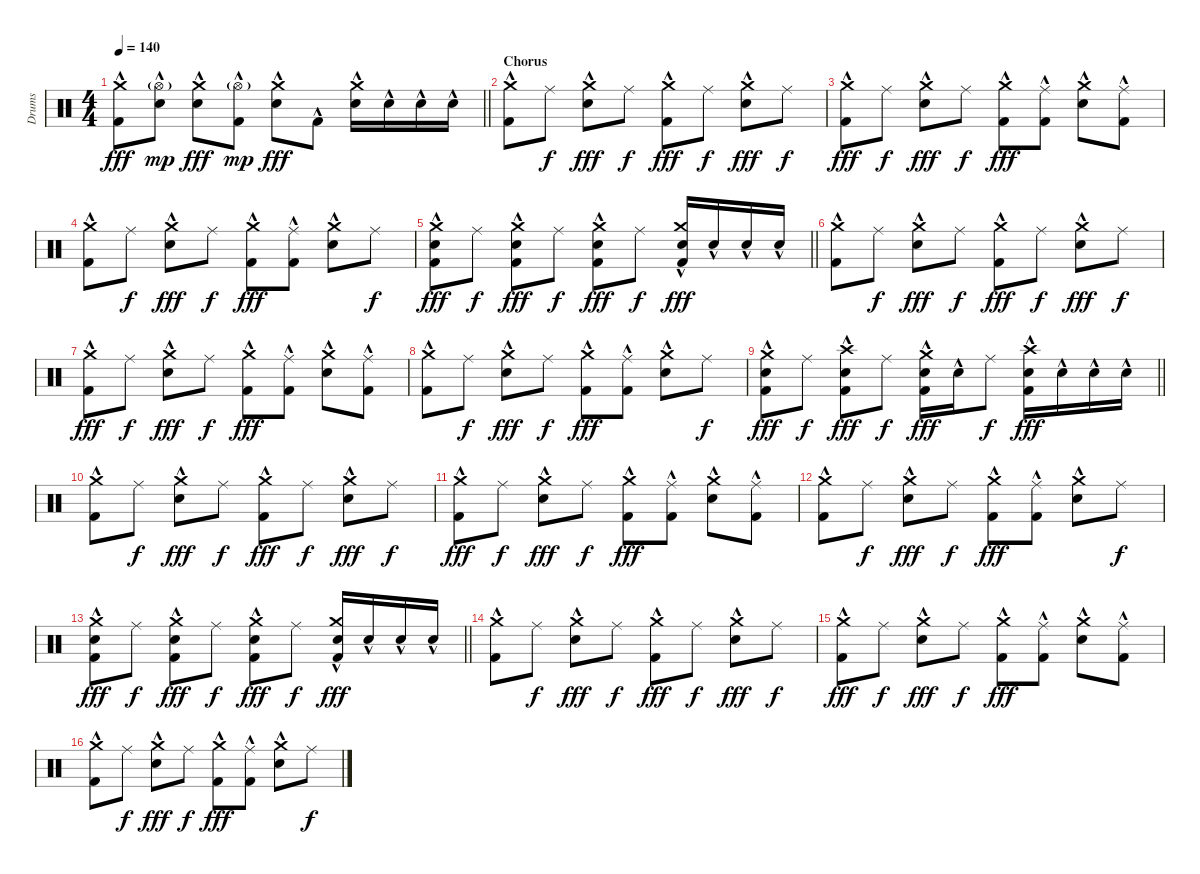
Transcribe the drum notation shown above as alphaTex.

\track ("Drums" "Drums") {instrument percussion}
\staff {score}
\articulation defaults
\ts (4 4)
\tempo 140
\clef neutral
\barLineRight lightlight
\ks c
("Kick (hit) 2"{hac} "Crash medium (hit)").8{dy fff} ("Snare (hit) 2"{hac} "Hi-Hat (open)"{g}).8{dy mp} ("Snare (hit) 2"{hac} "Crash medium (hit)").8{dy fff} ("Kick (hit) 2"{hac} "Hi-Hat (open)"{g}).8{dy mp} ("Snare (hit) 2"{hac} "Crash medium (hit)").8{dy fff} "Kick (hit) 2"{hac}.8 ("Snare (hit) 2"{hac} "Crash medium (hit)").16 "Snare (hit) 2"{hac}.16 "Snare (hit) 2"{hac}.16 "Snare (hit) 2"{hac}.16 |
\section ("" "Chorus")
("Kick (hit) 2"{hac} "Crash medium (hit)").8 "Ride (middle)".8{dy f} ("Snare (hit) 2"{hac} "Crash medium (hit)").8{dy fff} "Ride (middle)".8{dy f} ("Kick (hit) 2"{hac} "Crash medium (hit)").8{dy fff} "Ride (middle)".8{dy f} ("Snare (hit) 2"{hac} "Crash medium (hit)").8{dy fff} "Ride (middle)".8{dy f} |
("Kick (hit) 2"{hac} "Crash medium (hit)").8{dy fff} "Ride (middle)".8{dy f} ("Snare (hit) 2"{hac} "Crash medium (hit)").8{dy fff} "Ride (middle)".8{dy f} ("Kick (hit) 2"{hac} "Crash medium (hit)").8{dy fff} ("Kick (hit) 2"{hac} "Ride (middle)").8 ("Snare (hit) 2"{hac} "Crash medium (hit)").8 ("Kick (hit) 2"{hac} "Ride (middle)").8 |
("Kick (hit) 2"{hac} "Crash medium (hit)").8 "Ride (middle)".8{dy f} ("Snare (hit) 2"{hac} "Crash medium (hit)").8{dy fff} "Ride (middle)".8{dy f} ("Kick (hit) 2"{hac} "Crash medium (hit)").8{dy fff} ("Kick (hit) 2"{hac} "Ride (middle)").8 ("Snare (hit) 2"{hac} "Crash medium (hit)").8 "Ride (middle)".8{dy f} |
\barLineRight lightlight
("Kick (hit) 2"{hac} "Snare (hit) 2"{hac} "Crash medium (hit)").8{dy fff} "Ride (middle)".8{dy f} ("Kick (hit) 2"{hac} "Snare (hit) 2"{hac} "Crash medium (hit)").8{dy fff} "Ride (middle)".8{dy f} ("Kick (hit) 2"{hac} "Snare (hit) 2"{hac} "Crash medium (hit)").8{dy fff} "Ride (middle)".8{dy f} ("Kick (hit) 2"{hac} "Snare (hit) 2"{hac} "Crash medium (hit)").16{dy fff} "Snare (hit) 2"{hac}.16 "Snare (hit) 2"{hac}.16 "Snare (hit) 2"{hac}.16 |
\section ("" "")
("Kick (hit) 2"{hac} "Crash medium (hit)").8 "Ride (middle)".8{dy f} ("Snare (hit) 2"{hac} "Crash medium (hit)").8{dy fff} "Ride (middle)".8{dy f} ("Kick (hit) 2"{hac} "Crash medium (hit)").8{dy fff} "Ride (middle)".8{dy f} ("Snare (hit) 2"{hac} "Crash medium (hit)").8{dy fff} "Ride (middle)".8{dy f} |
("Kick (hit) 2"{hac} "Crash medium (hit)").8{dy fff} "Ride (middle)".8{dy f} ("Snare (hit) 2"{hac} "Crash medium (hit)").8{dy fff} "Ride (middle)".8{dy f} ("Kick (hit) 2"{hac} "Crash medium (hit)").8{dy fff} ("Kick (hit) 2"{hac} "Ride (middle)").8 ("Snare (hit) 2"{hac} "Crash medium (hit)").8 ("Kick (hit) 2"{hac} "Ride (middle)").8 |
("Kick (hit) 2"{hac} "Crash medium (hit)").8 "Ride (middle)".8{dy f} ("Snare (hit) 2"{hac} "Crash medium (hit)").8{dy fff} "Ride (middle)".8{dy f} ("Kick (hit) 2"{hac} "Crash medium (hit)").8{dy fff} ("Kick (hit) 2"{hac} "Ride (middle)").8 ("Snare (hit) 2"{hac} "Crash medium (hit)").8 "Ride (middle)".8{dy f} |
\barLineRight lightlight
("Kick (hit) 2"{hac} "Snare (hit) 2"{hac} "Crash medium (hit)").8{dy fff} "Ride (middle)".8{dy f} ("Kick (hit) 2"{hac} "Snare (hit) 2"{hac} "Crash high (hit)").8{dy fff} "Ride (middle)".8{dy f} ("Kick (hit) 2"{hac} "Snare (hit) 2"{hac} "Crash medium (hit)").16{dy fff} "Snare (hit) 2"{hac}.16 "Ride (middle)".8{dy f} ("Kick (hit) 2"{hac} "Snare (hit) 2"{hac} "Crash high (hit)").16{dy fff} "Snare (hit) 2"{hac}.16 "Snare (hit) 2"{hac}.16 "Snare (hit) 2"{hac}.16 |
\section ("" "")
("Kick (hit) 2"{hac} "Crash medium (hit)").8 "Ride (middle)".8{dy f} ("Snare (hit) 2"{hac} "Crash medium (hit)").8{dy fff} "Ride (middle)".8{dy f} ("Kick (hit) 2"{hac} "Crash medium (hit)").8{dy fff} "Ride (middle)".8{dy f} ("Snare (hit) 2"{hac} "Crash medium (hit)").8{dy fff} "Ride (middle)".8{dy f} |
("Kick (hit) 2"{hac} "Crash medium (hit)").8{dy fff} "Ride (middle)".8{dy f} ("Snare (hit) 2"{hac} "Crash medium (hit)").8{dy fff} "Ride (middle)".8{dy f} ("Kick (hit) 2"{hac} "Crash medium (hit)").8{dy fff} ("Kick (hit) 2"{hac} "Ride (middle)").8 ("Snare (hit) 2"{hac} "Crash medium (hit)").8 ("Kick (hit) 2"{hac} "Ride (middle)").8 |
("Kick (hit) 2"{hac} "Crash medium (hit)").8 "Ride (middle)".8{dy f} ("Snare (hit) 2"{hac} "Crash medium (hit)").8{dy fff} "Ride (middle)".8{dy f} ("Kick (hit) 2"{hac} "Crash medium (hit)").8{dy fff} ("Kick (hit) 2"{hac} "Ride (middle)").8 ("Snare (hit) 2"{hac} "Crash medium (hit)").8 "Ride (middle)".8{dy f} |
\barLineRight lightlight
("Kick (hit) 2"{hac} "Snare (hit) 2"{hac} "Crash medium (hit)").8{dy fff} "Ride (middle)".8{dy f} ("Kick (hit) 2"{hac} "Snare (hit) 2"{hac} "Crash medium (hit)").8{dy fff} "Ride (middle)".8{dy f} ("Kick (hit) 2"{hac} "Snare (hit) 2"{hac} "Crash medium (hit)").8{dy fff} "Ride (middle)".8{dy f} ("Kick (hit) 2"{hac} "Snare (hit) 2"{hac} "Crash medium (hit)").16{dy fff} "Snare (hit) 2"{hac}.16 "Snare (hit) 2"{hac}.16 "Snare (hit) 2"{hac}.16 |
\section ("" "")
("Kick (hit) 2"{hac} "Crash medium (hit)").8 "Ride (middle)".8{dy f} ("Snare (hit) 2"{hac} "Crash medium (hit)").8{dy fff} "Ride (middle)".8{dy f} ("Kick (hit) 2"{hac} "Crash medium (hit)").8{dy fff} "Ride (middle)".8{dy f} ("Snare (hit) 2"{hac} "Crash medium (hit)").8{dy fff} "Ride (middle)".8{dy f} |
("Kick (hit) 2"{hac} "Crash medium (hit)").8{dy fff} "Ride (middle)".8{dy f} ("Snare (hit) 2"{hac} "Crash medium (hit)").8{dy fff} "Ride (middle)".8{dy f} ("Kick (hit) 2"{hac} "Crash medium (hit)").8{dy fff} ("Kick (hit) 2"{hac} "Ride (middle)").8 ("Snare (hit) 2"{hac} "Crash medium (hit)").8 ("Kick (hit) 2"{hac} "Ride (middle)").8 |
("Kick (hit) 2"{hac} "Crash medium (hit)").8 "Ride (middle)".8{dy f} ("Snare (hit) 2"{hac} "Crash medium (hit)").8{dy fff} "Ride (middle)".8{dy f} ("Kick (hit) 2"{hac} "Crash medium (hit)").8{dy fff} ("Kick (hit) 2"{hac} "Ride (middle)").8 ("Snare (hit) 2"{hac} "Crash medium (hit)").8 "Ride (middle)".8{dy f}
